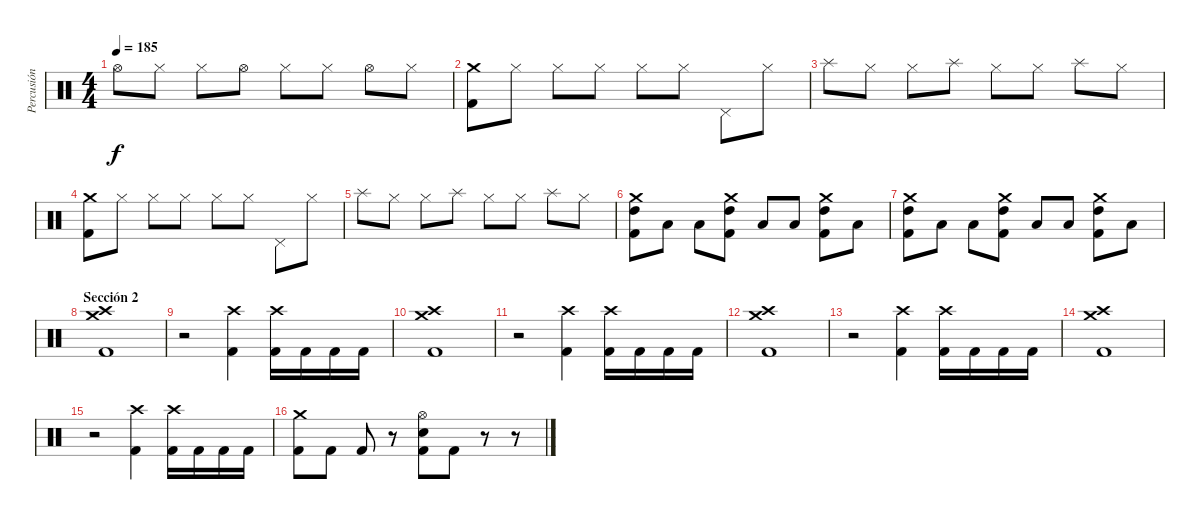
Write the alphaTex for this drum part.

\track ("Percusión" "Percusión") {instrument percussion}
\staff {score}
\articulation defaults
\ts (4 4)
\tempo 185
\clef neutral
\ks c "Hi-Hat (open)".8{dy f} "Hi-Hat (closed)".8 "Hi-Hat (closed)".8 "Hi-Hat (open)".8 "Hi-Hat (closed)".8 "Hi-Hat (closed)".8 "Hi-Hat (open)".8 "Hi-Hat (closed)".8
|
("Crash medium (hit)" "Kick (hit) 2").8 "Hi-Hat (closed)".8 "Hi-Hat (closed)".8 "Hi-Hat (closed)".8 "Hi-Hat (closed)".8 "Hi-Hat (closed)".8 "Pedal Hi-Hat (hit)".8 "Hi-Hat (closed)".8 |
"Splash (hit)".8 "Hi-Hat (closed)".8 "Hi-Hat (closed)".8 "Splash (hit)".8 "Hi-Hat (closed)".8 "Hi-Hat (closed)".8 "Splash (hit)".8 "Hi-Hat (closed)".8 |
("Crash medium (hit)" "Kick (hit) 2").8 "Hi-Hat (closed)".8 "Hi-Hat (closed)".8 "Hi-Hat (closed)".8 "Hi-Hat (closed)".8 "Hi-Hat (closed)".8 "Pedal Hi-Hat (hit)".8 "Hi-Hat (closed)".8 |
"Splash (hit)".8 "Hi-Hat (closed)".8 "Hi-Hat (closed)".8 "Splash (hit)".8 "Hi-Hat (closed)".8 "Hi-Hat (closed)".8 "Splash (hit)".8 "Hi-Hat (closed)".8 |
("Crash medium (hit)" "High Tom (hit)" "Kick (hit) 2").8 "Low Tom (hit)".8 "Low Tom (hit)".8 ("Crash medium (hit)" "High Tom (hit)" "Kick (hit) 2").8 "Low Tom (hit)".8 "Low Tom (hit)".8 ("Crash medium (hit)" "High Tom (hit)" "Kick (hit) 2").8 "Low Tom (hit)".8 |
("Crash medium (hit)" "High Tom (hit)" "Kick (hit) 2").8 "Low Tom (hit)".8 "Low Tom (hit)".8 ("Crash medium (hit)" "High Tom (hit)" "Kick (hit) 2").8 "Low Tom (hit)".8 "Low Tom (hit)".8 ("Crash medium (hit)" "High Tom (hit)" "Kick (hit) 2").8 "Low Tom (hit)".8 |
\section ("" "Sección 2")
("Crash high (hit)" "Crash medium (hit)" "Kick (hit) 2").1 |
r.2 ("Crash high (hit)" "Kick (hit) 2").4 ("Crash high (hit)" "Kick (hit) 2").16 "Kick (hit) 2".16 "Kick (hit) 2".16 "Kick (hit) 2".16 |
("Crash high (hit)" "Crash medium (hit)" "Kick (hit) 2").1 |
r.2 ("Crash high (hit)" "Kick (hit) 2").4 ("Crash high (hit)" "Kick (hit) 2").16 "Kick (hit) 2".16 "Kick (hit) 2".16 "Kick (hit) 2".16 |
("Crash high (hit)" "Crash medium (hit)" "Kick (hit) 2").1 |
r.2 ("Crash high (hit)" "Kick (hit) 2").4 ("Crash high (hit)" "Kick (hit) 2").16 "Kick (hit) 2".16 "Kick (hit) 2".16 "Kick (hit) 2".16 |
("Crash high (hit)" "Crash medium (hit)" "Kick (hit) 2").1 |
r.2 ("Crash high (hit)" "Kick (hit) 2").4 ("Crash high (hit)" "Kick (hit) 2").16 "Kick (hit) 2".16 "Kick (hit) 2".16 "Kick (hit) 2".16 |
\section ("" "")
("Crash medium (hit)" "Kick (hit) 2").8 "Kick (hit) 2".8 "Kick (hit) 2".8 r.8 ("Hi-Hat (open)" "Snare (hit) 2" "Kick (hit) 2").8 "Kick (hit) 2".8 r.8 r.8
